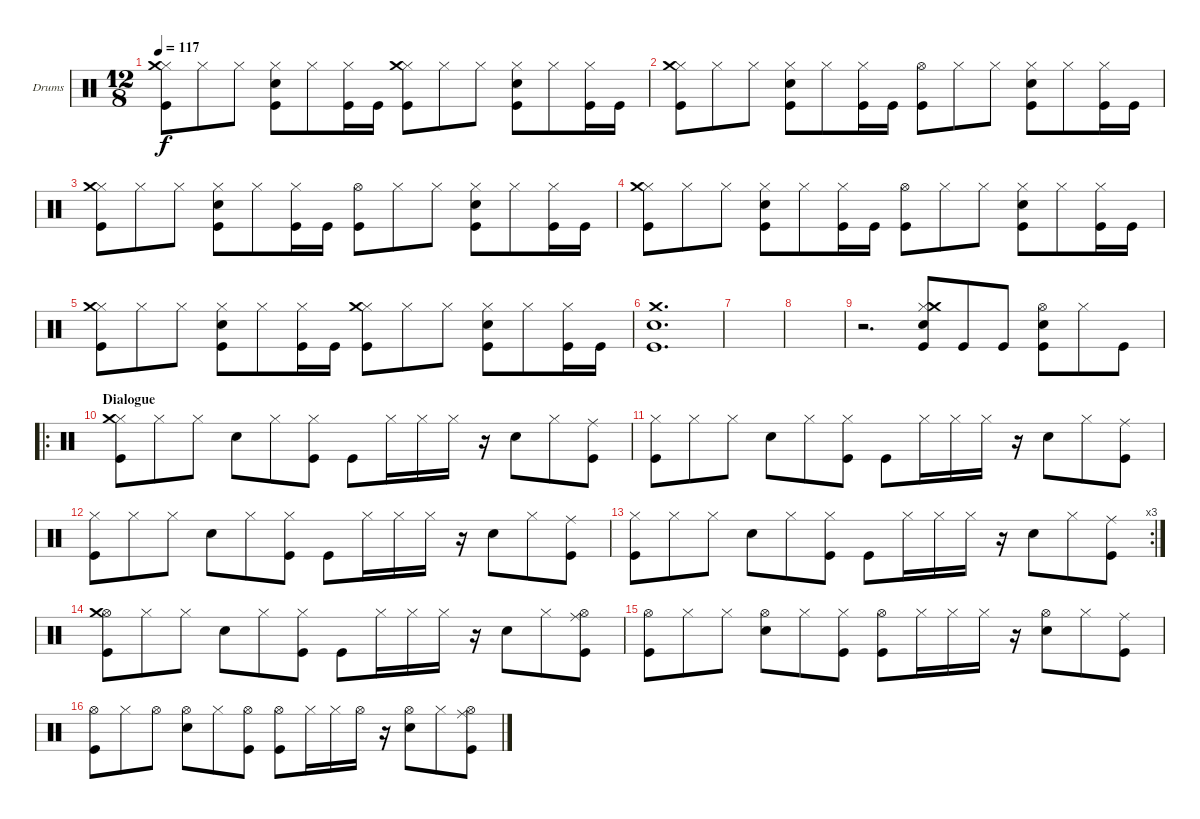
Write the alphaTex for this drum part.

\defaultSystemsLayout 4
\bracketExtendMode groupsimilarinstruments
\firstSystemTrackNameOrientation horizontal
\otherSystemsTrackNameOrientation horizontal
\track ("Drumkit" "Drums") {instrument percussion}
\staff {score}
\articulation defaults
\ts (12 8)
\tempo 117
\clef neutral
\ks c
("Kick (hit)" "Hi-Hat (closed)" "Crash medium (hit)").8{dy f} "Hi-Hat (closed)".8 "Hi-Hat (closed)".8 ("Kick (hit)" "Snare (hit) 2" "Hi-Hat (closed)").8 "Hi-Hat (closed)".8 ("Kick (hit)" "Hi-Hat (closed)").16 "Kick (hit)".16 ("Kick (hit)" "Hi-Hat (closed)" "Crash medium (hit)").8 "Hi-Hat (closed)".8 "Hi-Hat (closed)".8 ("Kick (hit)" "Snare (hit) 2" "Hi-Hat (closed)").8 "Hi-Hat (closed)".8 ("Kick (hit)" "Hi-Hat (closed)").16 "Kick (hit)".16 |
("Kick (hit)" "Hi-Hat (closed)" "Crash medium (hit)").8 "Hi-Hat (closed)".8 "Hi-Hat (closed)".8 ("Kick (hit)" "Snare (hit) 2" "Hi-Hat (closed)").8 "Hi-Hat (closed)".8 ("Kick (hit)" "Hi-Hat (closed)").16 "Kick (hit)".16 ("Kick (hit)" "Hi-Hat (open)").8 "Hi-Hat (closed)".8 "Hi-Hat (closed)".8 ("Kick (hit)" "Snare (hit) 2" "Hi-Hat (closed)").8 "Hi-Hat (closed)".8 ("Kick (hit)" "Hi-Hat (closed)").16 "Kick (hit)".16 |
("Kick (hit)" "Hi-Hat (closed)" "Crash medium (hit)").8 "Hi-Hat (closed)".8 "Hi-Hat (closed)".8 ("Kick (hit)" "Snare (hit) 2" "Hi-Hat (closed)").8 "Hi-Hat (closed)".8 ("Kick (hit)" "Hi-Hat (closed)").16 "Kick (hit)".16 ("Kick (hit)" "Hi-Hat (open)").8 "Hi-Hat (closed)".8 "Hi-Hat (closed)".8 ("Kick (hit)" "Snare (hit) 2" "Hi-Hat (closed)").8 "Hi-Hat (closed)".8 ("Kick (hit)" "Hi-Hat (closed)").16 "Kick (hit)".16 |
("Kick (hit)" "Hi-Hat (closed)" "Crash medium (hit)").8 "Hi-Hat (closed)".8 "Hi-Hat (closed)".8 ("Kick (hit)" "Snare (hit) 2" "Hi-Hat (closed)").8 "Hi-Hat (closed)".8 ("Kick (hit)" "Hi-Hat (closed)").16 "Kick (hit)".16 ("Kick (hit)" "Hi-Hat (open)").8 "Hi-Hat (closed)".8 "Hi-Hat (closed)".8 ("Kick (hit)" "Snare (hit) 2" "Hi-Hat (closed)").8 "Hi-Hat (closed)".8 ("Kick (hit)" "Hi-Hat (closed)").16 "Kick (hit)".16 |
("Kick (hit)" "Hi-Hat (closed)" "Crash medium (hit)").8 "Hi-Hat (closed)".8 "Hi-Hat (closed)".8 ("Kick (hit)" "Snare (hit) 2" "Hi-Hat (closed)").8 "Hi-Hat (closed)".8 ("Kick (hit)" "Hi-Hat (closed)").16 "Kick (hit)".16 ("Kick (hit)" "Hi-Hat (closed)" "Crash medium (hit)").8 "Hi-Hat (closed)".8 "Hi-Hat (closed)".8 ("Kick (hit)" "Snare (hit) 2" "Hi-Hat (closed)").8 "Hi-Hat (closed)".8 ("Kick (hit)" "Hi-Hat (closed)").16 "Kick (hit)".16 |
("Kick (hit)" "Snare (hit) 2" "Crash medium (hit)").1{d} |
|
|
\scale
0.333333 r.2{d} ("Kick (hit)" "Snare (hit) 2" "Hi-Hat (closed)" "Crash medium (hit)").8 "Kick (hit)".8 "Kick (hit)".8 ("Kick (hit)" "Snare (hit) 2" "Hi-Hat (open)").8 "Hi-Hat (closed)".8 "Kick (hit)".8 |
\ro
\section ("" "Dialogue")
\scale
0.333333 ("Kick (hit)" "Hi-Hat (closed)" "Crash medium (hit)").8 "Hi-Hat (closed)".8 "Hi-Hat (closed)".8 "Snare (hit) 2".8 "Hi-Hat (closed)".8 ("Hi-Hat (closed)" "Kick (hit)").8 "Kick (hit)".8 "Hi-Hat (closed)".16 "Hi-Hat (closed)".16 "Hi-Hat (closed)".16 r.16 "Snare (hit) 2".8 "Hi-Hat (closed)".8 ("Kick (hit)" "Ride (middle)").8 |
\scale
0.333333 ("Kick (hit)" "Hi-Hat (closed)").8 "Hi-Hat (closed)".8 "Hi-Hat (closed)".8 "Snare (hit) 2".8 "Hi-Hat (closed)".8 ("Hi-Hat (closed)" "Kick (hit)").8 "Kick (hit)".8 "Hi-Hat (closed)".16 "Hi-Hat (closed)".16 "Hi-Hat (closed)".16 r.16 "Snare (hit) 2".8 "Hi-Hat (closed)".8 ("Kick (hit)" "Ride (middle)").8 |
\scale
0.333333 ("Kick (hit)" "Hi-Hat (closed)").8 "Hi-Hat (closed)".8 "Hi-Hat (closed)".8 "Snare (hit) 2".8 "Hi-Hat (closed)".8 ("Hi-Hat (closed)" "Kick (hit)").8 "Kick (hit)".8 "Hi-Hat (closed)".16 "Hi-Hat (closed)".16 "Hi-Hat (closed)".16 r.16 "Snare (hit) 2".8 "Hi-Hat (closed)".8 ("Kick (hit)" "Ride (middle)").8 |
\rc 3
\scale
0.333333 ("Kick (hit)" "Hi-Hat (closed)").8 "Hi-Hat (closed)".8 "Hi-Hat (closed)".8 "Snare (hit) 2".8 "Hi-Hat (closed)".8 ("Hi-Hat (closed)" "Kick (hit)").8 "Kick (hit)".8 "Hi-Hat (closed)".16 "Hi-Hat (closed)".16 "Hi-Hat (closed)".16 r.16 "Snare (hit) 2".8 "Hi-Hat (closed)".8 ("Kick (hit)" "Ride (middle)").8 |
\scale
0.333333 ("Kick (hit)" "Hi-Hat (open)" "Crash medium (hit)").8 "Hi-Hat (closed)".8 "Hi-Hat (closed)".8 "Snare (hit) 2".8 "Hi-Hat (closed)".8 ("Hi-Hat (closed)" "Kick (hit)").8 "Kick (hit)".8 "Hi-Hat (closed)".16 "Hi-Hat (closed)".16 "Hi-Hat (closed)".16 r.16 "Snare (hit) 2".8 "Hi-Hat (closed)".8 ("Kick (hit)" "Ride (middle)" "Hi-Hat (open)").8 |
\scale
0.333333 ("Kick (hit)" "Hi-Hat (open)").8 "Hi-Hat (closed)".8 "Hi-Hat (closed)".8 ("Snare (hit) 2" "Hi-Hat (open)").8 "Hi-Hat (closed)".8 ("Hi-Hat (closed)" "Kick (hit)").8 ("Kick (hit)" "Hi-Hat (open)").8 "Hi-Hat (closed)".16 "Hi-Hat (closed)".16 "Hi-Hat (closed)".16 r.16 ("Snare (hit) 2" "Hi-Hat (open)").8 "Hi-Hat (closed)".8 ("Kick (hit)" "Ride (middle)").8 |
\scale
0.333333 ("Kick (hit)" "Hi-Hat (open)").8 "Hi-Hat (closed)".8 "Hi-Hat (open)".8 ("Snare (hit) 2" "Hi-Hat (open)").8 "Hi-Hat (closed)".8 ("Hi-Hat (open)" "Kick (hit)").8 ("Kick (hit)" "Hi-Hat (open)").8 "Hi-Hat (closed)".16 "Hi-Hat (closed)".16 "Hi-Hat (open)".16 r.16 ("Snare (hit) 2" "Hi-Hat (open)").8 "Hi-Hat (closed)".8 ("Kick (hit)" "Ride (middle)" "Hi-Hat (open)").8
